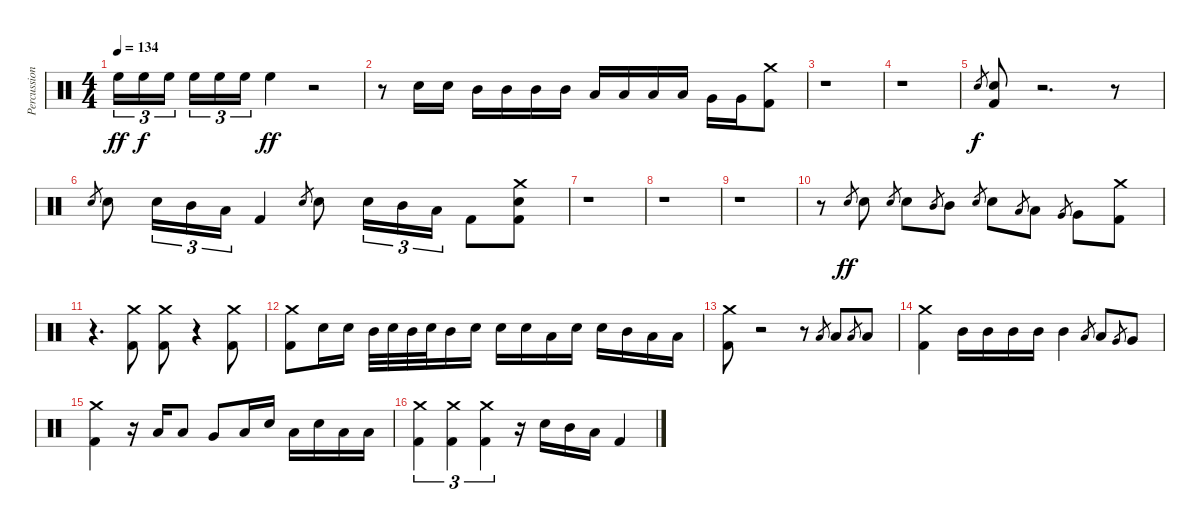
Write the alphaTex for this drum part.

\track ("Percussion" "Percussion") {instrument percussion}
\staff {score}
\articulation defaults
\ts (4 4)
\tempo 134
\clef neutral
\ks c "High Floor Tom (hit)".16{tu (3 2) dy ff} "High Floor Tom (hit)".16{tu (3 2) dy f} "High Floor Tom (hit)".16{tu (3 2)} "High Floor Tom (hit)".16{tu (3 2)} "High Floor Tom (hit)".16{tu (3 2)} "High Floor Tom (hit)".16{tu (3 2)} "High Floor Tom (hit)".4{dy ff}
r.2 |
r.8 "Electric Snare (hit)".16 "Electric Snare (hit)".16 "Mid Tom (hit)".16 "Mid Tom (hit)".16 "Mid Tom (hit)".16 "Mid Tom (hit)".16 "Low Tom (hit)".16 "Low Tom (hit)".16 "Low Tom (hit)".16 "Low Tom (hit)".16 "Very Low Tom (hit)".16 "Very Low Tom (hit)".16 ("Kick (hit) 2" "Crash medium (hit)").8 |
r.1 |
r.1 |
"Electric Snare (hit)".8{gr dy f} ("Kick (hit) 2" "Electric Snare (hit)").8 r.2{d} r.8 |
"Electric Snare (hit)".8{gr} "Electric Snare (hit)".8 "Electric Snare (hit)".16{tu (3 2)} "Mid Tom (hit)".16{tu (3 2)} "Low Floor Tom (hit)".16{tu (3 2)} "Kick (hit) 2".4 "Electric Snare (hit)".8{gr} "Electric Snare (hit)".8 "Electric Snare (hit)".16{tu (3 2)} "Mid Tom (hit)".16{tu (3 2)} "Low Floor Tom (hit)".16{tu (3 2)} "Kick (hit) 2".8 ("Kick (hit) 2" "Electric Snare (hit)" "Crash medium (hit)").8 |
r.1 |
r.1 |
r.1 |
r.8 "Electric Snare (hit)".8{gr dy ff} "Electric Snare (hit)".8 "Electric Snare (hit)".8{gr} "Electric Snare (hit)".8 "Mid Tom (hit)".8{gr} "Mid Tom (hit)".8 "Electric Snare (hit)".8{gr} "Electric Snare (hit)".8 "Low Tom (hit)".8{gr} "Low Tom (hit)".8 "Very Low Tom (hit)".8{gr} "Very Low Tom (hit)".8 ("Kick (hit) 2" "Crash medium (hit)").8 |
r.4{d} ("Kick (hit) 2" "Crash medium (hit)").8 ("Kick (hit) 2" "Crash medium (hit)").8 r.4 ("Kick (hit) 2" "Crash medium (hit)").8 |
("Kick (hit) 2" "Crash medium (hit)").8 "Electric Snare (hit)".16 "Electric Snare (hit)".16 "Mid Tom (hit)".32 "Electric Snare (hit)".32 "Mid Tom (hit)".32 "Electric Snare (hit)".32 "Mid Tom (hit)".16 "Electric Snare (hit)".16 "Electric Snare (hit)".16 "Electric Snare (hit)".16 "Low Tom (hit)".16 "Electric Snare (hit)".16 "Electric Snare (hit)".16 "Mid Tom (hit)".16 "Low Tom (hit)".16 "Low Tom (hit)".16 |
("Kick (hit) 2" "Crash medium (hit)").8 r.2 r.8 "Low Tom (hit)".8{gr} "Low Tom (hit)".8 "Low Tom (hit)".8{gr} "Low Tom (hit)".8 |
("Kick (hit) 2" "Crash medium (hit)").4 "Mid Tom (hit)".16 "Mid Tom (hit)".16 "Mid Tom (hit)".16 "Mid Tom (hit)".16 "Mid Tom (hit)".4 "Low Tom (hit)".8{gr} "Low Tom (hit)".8 "Very Low Tom (hit)".8{gr} "Very Low Tom (hit)".8 |
("Kick (hit) 2" "Crash medium (hit)").4 r.16 "Low Floor Tom (hit)".16 "Low Floor Tom (hit)".8 "Very Low Tom (hit)".8 "Low Tom (hit)".16 "Electric Snare (hit)".16 "Low Tom (hit)".16 "Electric Snare (hit)".16 "Low Tom (hit)".16 "Low Tom (hit)".16 |
("Kick (hit) 2" "Crash medium (hit)").4{tu (3 2)} ("Kick (hit) 2" "Crash medium (hit)").4{tu (3 2)} ("Kick (hit) 2" "Crash medium (hit)").4{tu (3 2)} r.16 "Electric Snare (hit)".16 "Mid Tom (hit)".16 "Low Floor Tom (hit)".16 "Kick (hit) 2".4
